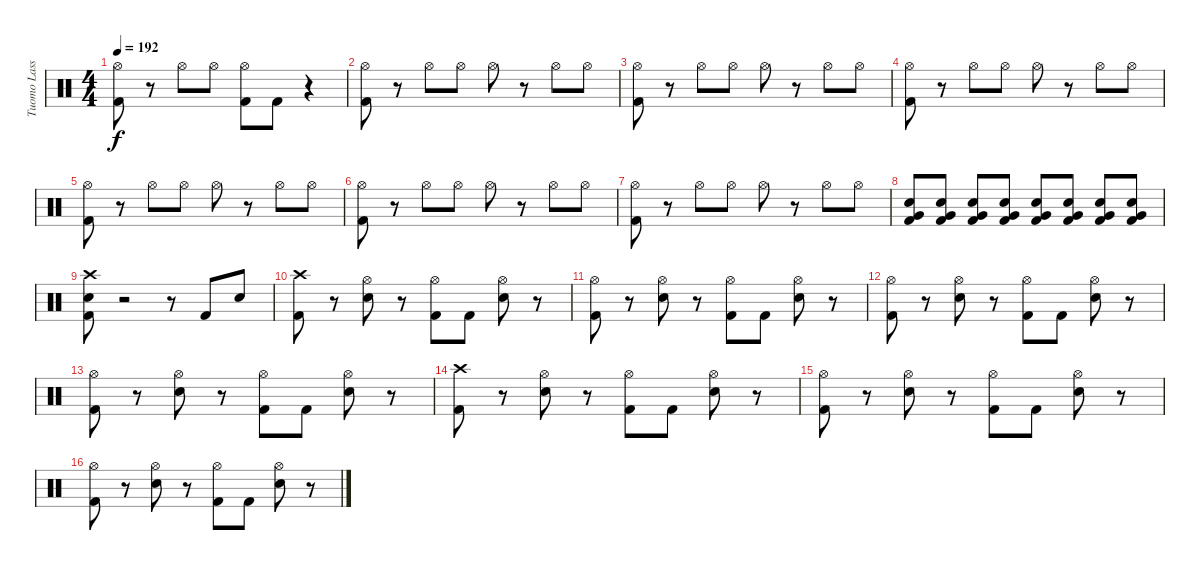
\track ("Tuomo Lassilla" "Tuomo Lass") {instrument percussion}
\staff {score}
\articulation defaults
\ts (4 4)
\tempo 192
\clef neutral
\ks c
("Kick (hit) 2" "Hi-Hat (open)").8{dy f} r.8 "Hi-Hat (open)".8 "Hi-Hat (open)".8 ("Kick (hit) 2" "Hi-Hat (open)").8 "Kick (hit) 2".8 r.4 |
("Kick (hit) 2" "Hi-Hat (open)").8 r.8 "Hi-Hat (open)".8 "Hi-Hat (open)".8 "Hi-Hat (open)".8 r.8 "Hi-Hat (open)".8 "Hi-Hat (open)".8 |
("Kick (hit) 2" "Hi-Hat (open)").8 r.8 "Hi-Hat (open)".8 "Hi-Hat (open)".8 "Hi-Hat (open)".8 r.8 "Hi-Hat (open)".8 "Hi-Hat (open)".8 |
("Kick (hit) 2" "Hi-Hat (open)").8 r.8 "Hi-Hat (open)".8 "Hi-Hat (open)".8 "Hi-Hat (open)".8 r.8 "Hi-Hat (open)".8 "Hi-Hat (open)".8 |
("Kick (hit) 2" "Hi-Hat (open)").8 r.8 "Hi-Hat (open)".8 "Hi-Hat (open)".8 "Hi-Hat (open)".8 r.8 "Hi-Hat (open)".8 "Hi-Hat (open)".8 |
("Kick (hit) 2" "Hi-Hat (open)").8 r.8 "Hi-Hat (open)".8 "Hi-Hat (open)".8 "Hi-Hat (open)".8 r.8 "Hi-Hat (open)".8 "Hi-Hat (open)".8 |
("Kick (hit) 2" "Hi-Hat (open)").8 r.8 "Hi-Hat (open)".8 "Hi-Hat (open)".8 "Hi-Hat (open)".8 r.8 "Hi-Hat (open)".8 "Hi-Hat (open)".8 |
("Electric Snare (hit)" "Very Low Tom (hit)" "Kick (hit) 2").8 ("Electric Snare (hit)" "Very Low Tom (hit)" "Kick (hit) 2").8 ("Electric Snare (hit)" "Very Low Tom (hit)" "Kick (hit) 2").8 ("Electric Snare (hit)" "Very Low Tom (hit)" "Kick (hit) 2").8 ("Electric Snare (hit)" "Very Low Tom (hit)" "Kick (hit) 2").8 ("Electric Snare (hit)" "Very Low Tom (hit)" "Kick (hit) 2").8 ("Electric Snare (hit)" "Very Low Tom (hit)" "Kick (hit) 2").8 ("Electric Snare (hit)" "Very Low Tom (hit)" "Kick (hit) 2").8 |
("Crash high (hit)" "Electric Snare (hit)" "Kick (hit) 2").8 r.2 r.8 "Kick (hit) 2".8 "Electric Snare (hit)".8 |
("Crash high (hit)" "Kick (hit) 2").8 r.8 ("Hi-Hat (open)" "Electric Snare (hit)").8 r.8 ("Hi-Hat (open)" "Kick (hit) 2").8 "Kick (hit) 2".8 ("Hi-Hat (open)" "Electric Snare (hit)").8 r.8 |
("Hi-Hat (open)" "Kick (hit) 2").8 r.8 ("Hi-Hat (open)" "Electric Snare (hit)").8 r.8 ("Hi-Hat (open)" "Kick (hit) 2").8 "Kick (hit) 2".8 ("Hi-Hat (open)" "Electric Snare (hit)").8 r.8 |
("Hi-Hat (open)" "Kick (hit) 2").8 r.8 ("Hi-Hat (open)" "Electric Snare (hit)").8 r.8 ("Hi-Hat (open)" "Kick (hit) 2").8 "Kick (hit) 2".8 ("Hi-Hat (open)" "Electric Snare (hit)").8 r.8 |
("Hi-Hat (open)" "Kick (hit) 2").8 r.8 ("Hi-Hat (open)" "Electric Snare (hit)").8 r.8 ("Hi-Hat (open)" "Kick (hit) 2").8 "Kick (hit) 2".8 ("Hi-Hat (open)" "Electric Snare (hit)").8 r.8 |
("Crash high (hit)" "Kick (hit) 2").8 r.8 ("Hi-Hat (open)" "Electric Snare (hit)").8 r.8 ("Hi-Hat (open)" "Kick (hit) 2").8 "Kick (hit) 2".8 ("Hi-Hat (open)" "Electric Snare (hit)").8 r.8 |
("Hi-Hat (open)" "Kick (hit) 2").8 r.8 ("Hi-Hat (open)" "Electric Snare (hit)").8 r.8 ("Hi-Hat (open)" "Kick (hit) 2").8 "Kick (hit) 2".8 ("Hi-Hat (open)" "Electric Snare (hit)").8 r.8 |
("Hi-Hat (open)" "Kick (hit) 2").8 r.8 ("Hi-Hat (open)" "Electric Snare (hit)").8 r.8 ("Hi-Hat (open)" "Kick (hit) 2").8 "Kick (hit) 2".8 ("Hi-Hat (open)" "Electric Snare (hit)").8 r.8
